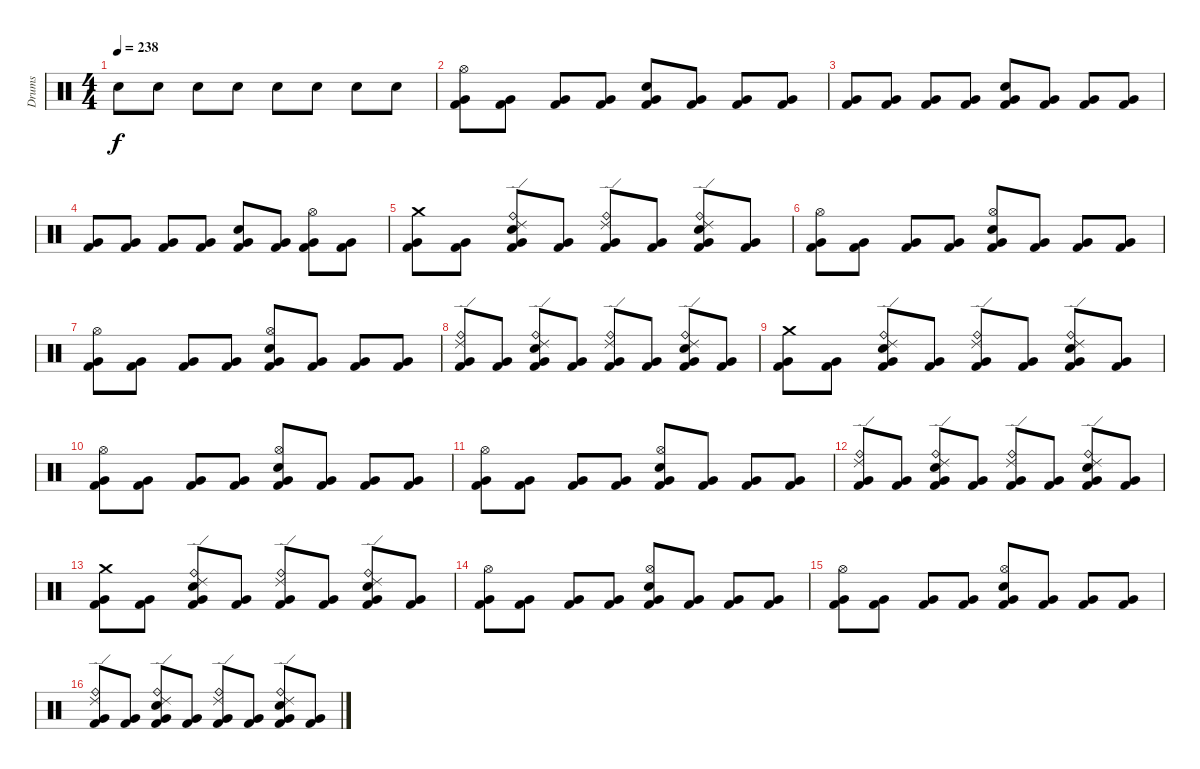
\track ("Drums" "Drums") {instrument percussion}
\staff {score}
\articulation defaults
\ts (4 4)
\tempo 238
\clef neutral
\ks c "Snare (hit) 2".8{dy f} "Snare (hit) 2".8 "Snare (hit) 2".8 "Snare (hit) 2".8 "Snare (hit) 2".8 "Snare (hit) 2".8 "Snare (hit) 2".8 "Snare (hit) 2".8
|
("Hi-Hat (open)" "Very Low Tom (hit)" "Kick (hit) 2").8 ("Very Low Tom (hit)" "Kick (hit) 2").8 ("Very Low Tom (hit)" "Kick (hit) 2").8 ("Very Low Tom (hit)" "Kick (hit) 2").8 ("Snare (hit) 2" "Very Low Tom (hit)" "Kick (hit) 2").8 ("Very Low Tom (hit)" "Kick (hit) 2").8 ("Very Low Tom (hit)" "Kick (hit) 2").8 ("Very Low Tom (hit)" "Kick (hit) 2").8 |
("Very Low Tom (hit)" "Kick (hit) 2").8 ("Very Low Tom (hit)" "Kick (hit) 2").8 ("Very Low Tom (hit)" "Kick (hit) 2").8 ("Very Low Tom (hit)" "Kick (hit) 2").8 ("Snare (hit) 2" "Very Low Tom (hit)" "Kick (hit) 2").8 ("Very Low Tom (hit)" "Kick (hit) 2").8 ("Very Low Tom (hit)" "Kick (hit) 2").8 ("Very Low Tom (hit)" "Kick (hit) 2").8 |
("Very Low Tom (hit)" "Kick (hit) 2").8 ("Very Low Tom (hit)" "Kick (hit) 2").8 ("Very Low Tom (hit)" "Kick (hit) 2").8 ("Very Low Tom (hit)" "Kick (hit) 2").8 ("Snare (hit) 2" "Very Low Tom (hit)" "Kick (hit) 2").8 ("Very Low Tom (hit)" "Kick (hit) 2").8 ("Hi-Hat (open)" "Very Low Tom (hit)" "Kick (hit) 2").8 ("Very Low Tom (hit)" "Kick (hit) 2").8 |
("Crash medium (hit)" "Very Low Tom (hit)" "Kick (hit) 2").8 ("Very Low Tom (hit)" "Kick (hit) 2").8 ("Ride (bell)" "Ride (edge) 2" "Snare (hit) 2" "Very Low Tom (hit)" "Kick (hit) 2").8 ("Very Low Tom (hit)" "Kick (hit) 2").8 ("Ride (bell)" "Ride (edge) 2" "Very Low Tom (hit)" "Kick (hit) 2").8 ("Very Low Tom (hit)" "Kick (hit) 2").8 ("Ride (bell)" "Ride (edge) 2" "Snare (hit) 2" "Very Low Tom (hit)" "Kick (hit) 2").8 ("Very Low Tom (hit)" "Kick (hit) 2").8 |
("Hi-Hat (open)" "Very Low Tom (hit)" "Kick (hit) 2").8 ("Very Low Tom (hit)" "Kick (hit) 2").8 ("Very Low Tom (hit)" "Kick (hit) 2").8 ("Very Low Tom (hit)" "Kick (hit) 2").8 ("Hi-Hat (open)" "Snare (hit) 2" "Very Low Tom (hit)" "Kick (hit) 2").8 ("Very Low Tom (hit)" "Kick (hit) 2").8 ("Very Low Tom (hit)" "Kick (hit) 2").8 ("Very Low Tom (hit)" "Kick (hit) 2").8 |
("Hi-Hat (open)" "Very Low Tom (hit)" "Kick (hit) 2").8 ("Very Low Tom (hit)" "Kick (hit) 2").8 ("Very Low Tom (hit)" "Kick (hit) 2").8 ("Very Low Tom (hit)" "Kick (hit) 2").8 ("Hi-Hat (open)" "Snare (hit) 2" "Very Low Tom (hit)" "Kick (hit) 2").8 ("Very Low Tom (hit)" "Kick (hit) 2").8 ("Very Low Tom (hit)" "Kick (hit) 2").8 ("Very Low Tom (hit)" "Kick (hit) 2").8 |
("Ride (bell)" "Ride (edge) 2" "Very Low Tom (hit)" "Kick (hit) 2").8 ("Very Low Tom (hit)" "Kick (hit) 2").8 ("Ride (bell)" "Ride (edge) 2" "Snare (hit) 2" "Very Low Tom (hit)" "Kick (hit) 2").8 ("Very Low Tom (hit)" "Kick (hit) 2").8 ("Ride (bell)" "Ride (edge) 2" "Very Low Tom (hit)" "Kick (hit) 2").8 ("Very Low Tom (hit)" "Kick (hit) 2").8 ("Ride (bell)" "Ride (edge) 2" "Snare (hit) 2" "Very Low Tom (hit)" "Kick (hit) 2").8 ("Very Low Tom (hit)" "Kick (hit) 2").8 |
("Crash medium (hit)" "Very Low Tom (hit)" "Kick (hit) 2").8 ("Very Low Tom (hit)" "Kick (hit) 2").8 ("Ride (bell)" "Ride (edge) 2" "Snare (hit) 2" "Very Low Tom (hit)" "Kick (hit) 2").8 ("Very Low Tom (hit)" "Kick (hit) 2").8 ("Ride (bell)" "Ride (edge) 2" "Very Low Tom (hit)" "Kick (hit) 2").8 ("Very Low Tom (hit)" "Kick (hit) 2").8 ("Ride (bell)" "Ride (edge) 2" "Snare (hit) 2" "Very Low Tom (hit)" "Kick (hit) 2").8 ("Very Low Tom (hit)" "Kick (hit) 2").8 |
("Hi-Hat (open)" "Very Low Tom (hit)" "Kick (hit) 2").8 ("Very Low Tom (hit)" "Kick (hit) 2").8 ("Very Low Tom (hit)" "Kick (hit) 2").8 ("Very Low Tom (hit)" "Kick (hit) 2").8 ("Hi-Hat (open)" "Snare (hit) 2" "Very Low Tom (hit)" "Kick (hit) 2").8 ("Very Low Tom (hit)" "Kick (hit) 2").8 ("Very Low Tom (hit)" "Kick (hit) 2").8 ("Very Low Tom (hit)" "Kick (hit) 2").8 |
("Hi-Hat (open)" "Very Low Tom (hit)" "Kick (hit) 2").8 ("Very Low Tom (hit)" "Kick (hit) 2").8 ("Very Low Tom (hit)" "Kick (hit) 2").8 ("Very Low Tom (hit)" "Kick (hit) 2").8 ("Hi-Hat (open)" "Snare (hit) 2" "Very Low Tom (hit)" "Kick (hit) 2").8 ("Very Low Tom (hit)" "Kick (hit) 2").8 ("Very Low Tom (hit)" "Kick (hit) 2").8 ("Very Low Tom (hit)" "Kick (hit) 2").8 |
("Ride (bell)" "Ride (edge) 2" "Very Low Tom (hit)" "Kick (hit) 2").8 ("Very Low Tom (hit)" "Kick (hit) 2").8 ("Ride (bell)" "Ride (edge) 2" "Snare (hit) 2" "Very Low Tom (hit)" "Kick (hit) 2").8 ("Very Low Tom (hit)" "Kick (hit) 2").8 ("Ride (bell)" "Ride (edge) 2" "Very Low Tom (hit)" "Kick (hit) 2").8 ("Very Low Tom (hit)" "Kick (hit) 2").8 ("Ride (bell)" "Ride (edge) 2" "Snare (hit) 2" "Very Low Tom (hit)" "Kick (hit) 2").8 ("Very Low Tom (hit)" "Kick (hit) 2").8 |
("Crash medium (hit)" "Very Low Tom (hit)" "Kick (hit) 2").8 ("Very Low Tom (hit)" "Kick (hit) 2").8 ("Ride (bell)" "Ride (edge) 2" "Snare (hit) 2" "Very Low Tom (hit)" "Kick (hit) 2").8 ("Very Low Tom (hit)" "Kick (hit) 2").8 ("Ride (bell)" "Ride (edge) 2" "Very Low Tom (hit)" "Kick (hit) 2").8 ("Very Low Tom (hit)" "Kick (hit) 2").8 ("Ride (bell)" "Ride (edge) 2" "Snare (hit) 2" "Very Low Tom (hit)" "Kick (hit) 2").8 ("Very Low Tom (hit)" "Kick (hit) 2").8 |
("Hi-Hat (open)" "Very Low Tom (hit)" "Kick (hit) 2").8 ("Very Low Tom (hit)" "Kick (hit) 2").8 ("Very Low Tom (hit)" "Kick (hit) 2").8 ("Very Low Tom (hit)" "Kick (hit) 2").8 ("Hi-Hat (open)" "Snare (hit) 2" "Very Low Tom (hit)" "Kick (hit) 2").8 ("Very Low Tom (hit)" "Kick (hit) 2").8 ("Very Low Tom (hit)" "Kick (hit) 2").8 ("Very Low Tom (hit)" "Kick (hit) 2").8 |
("Hi-Hat (open)" "Very Low Tom (hit)" "Kick (hit) 2").8 ("Very Low Tom (hit)" "Kick (hit) 2").8 ("Very Low Tom (hit)" "Kick (hit) 2").8 ("Very Low Tom (hit)" "Kick (hit) 2").8 ("Hi-Hat (open)" "Snare (hit) 2" "Very Low Tom (hit)" "Kick (hit) 2").8 ("Very Low Tom (hit)" "Kick (hit) 2").8 ("Very Low Tom (hit)" "Kick (hit) 2").8 ("Very Low Tom (hit)" "Kick (hit) 2").8 |
("Ride (bell)" "Ride (edge) 2" "Very Low Tom (hit)" "Kick (hit) 2").8 ("Very Low Tom (hit)" "Kick (hit) 2").8 ("Ride (bell)" "Ride (edge) 2" "Snare (hit) 2" "Very Low Tom (hit)" "Kick (hit) 2").8 ("Very Low Tom (hit)" "Kick (hit) 2").8 ("Ride (bell)" "Ride (edge) 2" "Very Low Tom (hit)" "Kick (hit) 2").8 ("Very Low Tom (hit)" "Kick (hit) 2").8 ("Ride (bell)" "Ride (edge) 2" "Snare (hit) 2" "Very Low Tom (hit)" "Kick (hit) 2").8 ("Very Low Tom (hit)" "Kick (hit) 2").8
